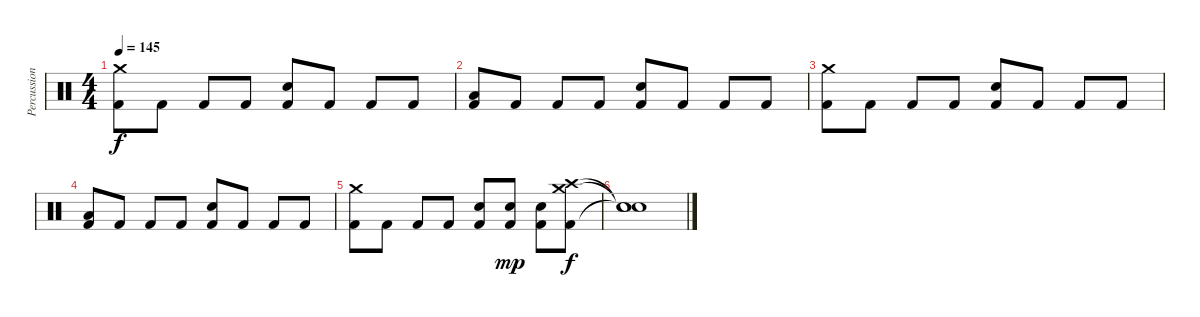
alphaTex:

\track ("Percussioni" "Percussion") {instrument percussion}
\staff {score}
\articulation defaults
\ts (4 4)
\tempo 145
\clef neutral
\ks c
("Crash medium (hit)" "Kick (hit) 2").8{dy f} "Kick (hit) 2".8 "Kick (hit) 2".8 "Kick (hit) 2".8 ("Snare (hit) 2" "Kick (hit) 2").8 "Kick (hit) 2".8 "Kick (hit) 2".8 "Kick (hit) 2".8 |
("Low Floor Tom (hit)" "Kick (hit) 2").8 "Kick (hit) 2".8 "Kick (hit) 2".8 "Kick (hit) 2".8 ("Snare (hit) 2" "Kick (hit) 2").8 "Kick (hit) 2".8 "Kick (hit) 2".8 "Kick (hit) 2".8 |
("Crash medium (hit)" "Kick (hit) 2").8 "Kick (hit) 2".8 "Kick (hit) 2".8 "Kick (hit) 2".8 ("Snare (hit) 2" "Kick (hit) 2").8 "Kick (hit) 2".8 "Kick (hit) 2".8 "Kick (hit) 2".8 |
("Low Floor Tom (hit)" "Kick (hit) 2").8 "Kick (hit) 2".8 "Kick (hit) 2".8 "Kick (hit) 2".8 ("Snare (hit) 2" "Kick (hit) 2").8 "Kick (hit) 2".8 "Kick (hit) 2".8 "Kick (hit) 2".8 |
("Crash medium (hit)" "Kick (hit) 2").8 "Kick (hit) 2".8 "Kick (hit) 2".8 "Kick (hit) 2".8 ("Snare (hit) 2" "Kick (hit) 2").8 ("Snare (hit) 2" "Kick (hit) 2").8{dy mp} ("Snare (hit) 2" "Kick (hit) 2").8 ("Crash high (hit)" "Crash medium (hit)" "Kick (hit) 2").8{dy f} |
("Snare (hit)"{t} "Snare (hit)"{t} "Snare (hit)"{t}).1
